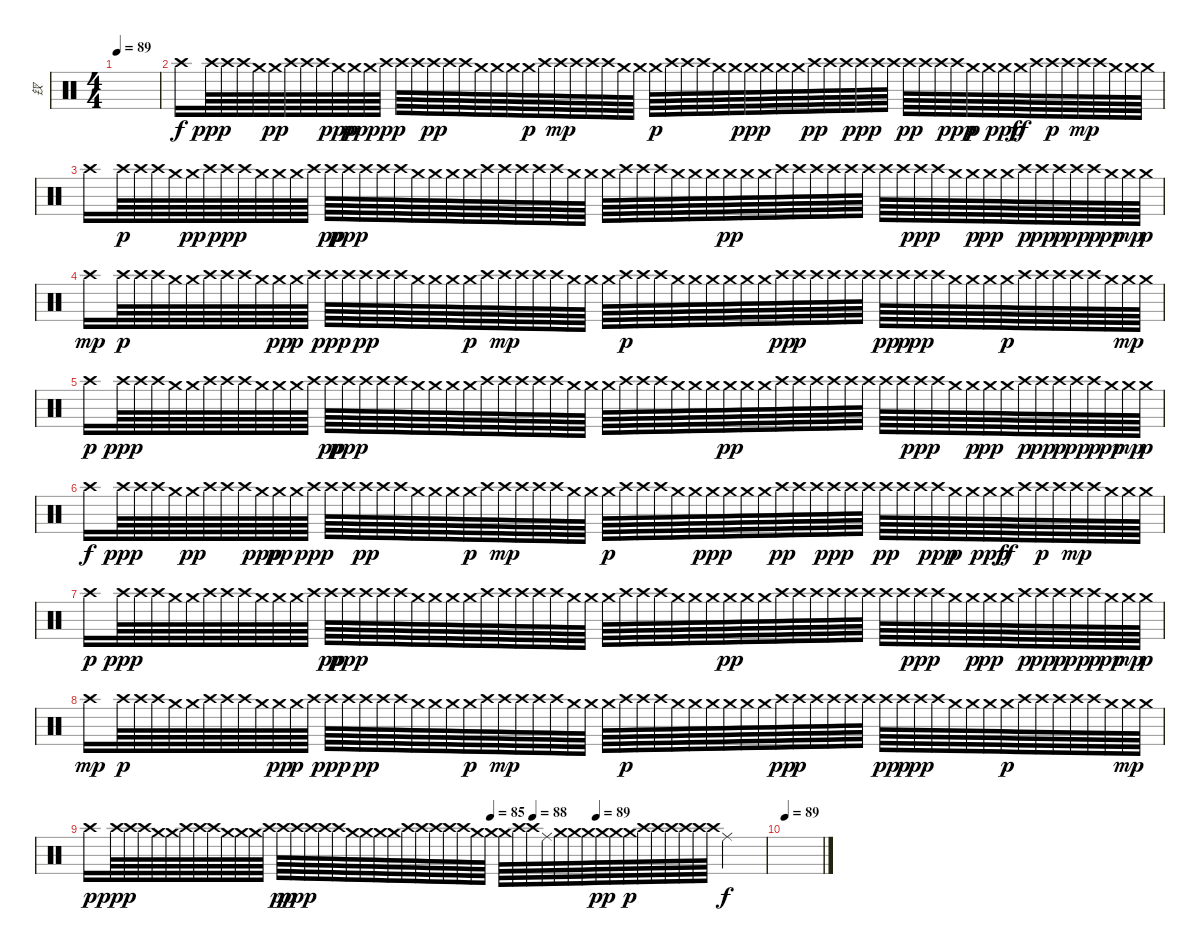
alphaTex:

\track ("钗" "钗") {instrument percussion}
\staff {score}
\articulation defaults
\ts (4 4)
\tempo 89
\tempo 83
\tempo 89
\clef neutral
\ks c
|
"Crash high (hit)".16{volume 16 balance 5} "Crash high (hit)".64{dy ppp} "Crash high (hit)".64 "Crash high (hit)".64 "Crash medium (hit)".64 "Crash medium (hit)".64{dy pp balance 9} "Crash high (hit)".64 "Crash high (hit)".64 "Crash high (hit)".64 "Crash medium (hit)".64{dy ppp} "Crash medium (hit)".64{dy pp} "Crash medium (hit)".64 "Crash high (hit)".64{dy ppp balance 0} "Crash high (hit)".64 "Crash high (hit)".64 "Crash high (hit)".64{dy pp} "Crash high (hit)".64 "Crash high (hit)".64{balance 7} "Crash medium (hit)".64 "Crash medium (hit)".64 "Crash medium (hit)".64 "Crash medium (hit)".64{dy p} "Crash high (hit)".64 "Crash high (hit)".64{dy mp} "Crash high (hit)".64 "Crash high (hit)".64 "Crash high (hit)".64{balance 13} "Crash medium (hit)".64 "Crash medium (hit)".64 "Crash medium (hit)".64{dy p} "Crash high (hit)".64 "Crash high (hit)".64 "Crash high (hit)".64 "Crash medium (hit)".64 "Crash medium (hit)".64 "Crash medium (hit)".64{dy ppp} "Crash medium (hit)".64 "Crash medium (hit)".64 "Crash medium (hit)".64 "Crash high (hit)".64{dy pp balance 8} "Crash high (hit)".64 "Crash high (hit)".64 "Crash high (hit)".64{dy ppp} "Crash high (hit)".64 "Crash high (hit)".64 "Crash high (hit)".64{dy pp} "Crash high (hit)".64 "Crash high (hit)".64 "Crash high (hit)".64{dy ppp} "Crash medium (hit)".64{dy p} "Crash medium (hit)".64 "Crash medium (hit)".64{dy ppp} "Crash medium (hit)".64{dy ff} "Crash high (hit)".64 "Crash high (hit)".64{dy p} "Crash high (hit)".64 "Crash high (hit)".64{dy mp} "Crash high (hit)".64 "Crash medium (hit)".64 "Crash medium (hit)".64 "Crash medium (hit)".64 |
"Crash high (hit)".16{balance 5} "Crash high (hit)".64{dy p} "Crash high (hit)".64 "Crash high (hit)".64 "Crash medium (hit)".64 "Crash medium (hit)".64{dy pp balance 9} "Crash high (hit)".64 "Crash high (hit)".64{dy ppp} "Crash high (hit)".64 "Crash medium (hit)".64 "Crash medium (hit)".64 "Crash medium (hit)".64 "Crash high (hit)".64{balance 0} "Crash high (hit)".64{dy pp} "Crash high (hit)".64{dy ppp} "Crash high (hit)".64 "Crash high (hit)".64 "Crash high (hit)".64{balance 7} "Crash medium (hit)".64 "Crash medium (hit)".64 "Crash medium (hit)".64 "Crash medium (hit)".64 "Crash high (hit)".64 "Crash high (hit)".64 "Crash high (hit)".64 "Crash high (hit)".64 "Crash high (hit)".64{balance 13} "Crash medium (hit)".64 "Crash medium (hit)".64 "Crash medium (hit)".64 "Crash high (hit)".64 "Crash high (hit)".64 "Crash high (hit)".64 "Crash medium (hit)".64 "Crash medium (hit)".64 "Crash medium (hit)".64 "Crash medium (hit)".64{dy pp} "Crash medium (hit)".64 "Crash medium (hit)".64 "Crash high (hit)".64{balance 8} "Crash high (hit)".64 "Crash high (hit)".64 "Crash high (hit)".64 "Crash high (hit)".64 "Crash high (hit)".64 "Crash high (hit)".64 "Crash high (hit)".64 "Crash high (hit)".64{dy ppp} "Crash high (hit)".64 "Crash medium (hit)".64 "Crash medium (hit)".64{dy p} "Crash medium (hit)".64{dy pp} "Crash medium (hit)".64 "Crash high (hit)".64{dy p} "Crash high (hit)".64{dy pp} "Crash high (hit)".64{dy p} "Crash high (hit)".64{dy pp} "Crash high (hit)".64{dy p} "Crash medium (hit)".64{dy pp} "Crash medium (hit)".64{dy mp} "Crash medium (hit)".64{dy p} |
"Crash high (hit)".16{dy mp balance 5} "Crash high (hit)".64{dy p} "Crash high (hit)".64 "Crash high (hit)".64 "Crash medium (hit)".64 "Crash medium (hit)".64{balance 9} "Crash high (hit)".64 "Crash high (hit)".64 "Crash high (hit)".64 "Crash medium (hit)".64 "Crash medium (hit)".64{dy pp} "Crash medium (hit)".64{dy p} "Crash high (hit)".64{balance 0} "Crash high (hit)".64{dy ppp} "Crash high (hit)".64 "Crash high (hit)".64{dy pp} "Crash high (hit)".64 "Crash high (hit)".64{balance 7} "Crash medium (hit)".64 "Crash medium (hit)".64 "Crash medium (hit)".64 "Crash medium (hit)".64{dy p} "Crash high (hit)".64 "Crash high (hit)".64{dy mp} "Crash high (hit)".64 "Crash high (hit)".64 "Crash high (hit)".64{balance 13} "Crash medium (hit)".64 "Crash medium (hit)".64 "Crash medium (hit)".64 "Crash high (hit)".64{dy p} "Crash high (hit)".64 "Crash high (hit)".64 "Crash medium (hit)".64 "Crash medium (hit)".64 "Crash medium (hit)".64 "Crash medium (hit)".64 "Crash medium (hit)".64 "Crash medium (hit)".64 "Crash high (hit)".64{dy pp balance 8} "Crash high (hit)".64{dy p} "Crash high (hit)".64 "Crash high (hit)".64 "Crash high (hit)".64 "Crash high (hit)".64 "Crash high (hit)".64{dy pp} "Crash high (hit)".64{dy p} "Crash high (hit)".64{dy pp} "Crash high (hit)".64 "Crash medium (hit)".64 "Crash medium (hit)".64 "Crash medium (hit)".64 "Crash medium (hit)".64{dy p} "Crash high (hit)".64 "Crash high (hit)".64 "Crash high (hit)".64 "Crash high (hit)".64 "Crash high (hit)".64 "Crash medium (hit)".64 "Crash medium (hit)".64{dy mp} "Crash medium (hit)".64 |
"Crash high (hit)".16{dy p balance 5} "Crash high (hit)".64{dy ppp} "Crash high (hit)".64 "Crash high (hit)".64 "Crash medium (hit)".64 "Crash medium (hit)".64{balance 9} "Crash high (hit)".64 "Crash high (hit)".64 "Crash high (hit)".64 "Crash medium (hit)".64 "Crash medium (hit)".64 "Crash medium (hit)".64 "Crash high (hit)".64{balance 0} "Crash high (hit)".64{dy pp} "Crash high (hit)".64{dy ppp} "Crash high (hit)".64 "Crash high (hit)".64 "Crash high (hit)".64{balance 7} "Crash medium (hit)".64 "Crash medium (hit)".64 "Crash medium (hit)".64 "Crash medium (hit)".64 "Crash high (hit)".64 "Crash high (hit)".64 "Crash high (hit)".64 "Crash high (hit)".64 "Crash high (hit)".64{balance 13} "Crash medium (hit)".64 "Crash medium (hit)".64 "Crash medium (hit)".64 "Crash high (hit)".64 "Crash high (hit)".64 "Crash high (hit)".64 "Crash medium (hit)".64 "Crash medium (hit)".64 "Crash medium (hit)".64 "Crash medium (hit)".64{dy pp} "Crash medium (hit)".64 "Crash medium (hit)".64 "Crash high (hit)".64{balance 8} "Crash high (hit)".64 "Crash high (hit)".64 "Crash high (hit)".64 "Crash high (hit)".64 "Crash high (hit)".64 "Crash high (hit)".64 "Crash high (hit)".64 "Crash high (hit)".64{dy ppp} "Crash high (hit)".64 "Crash medium (hit)".64 "Crash medium (hit)".64{dy p} "Crash medium (hit)".64{dy pp} "Crash medium (hit)".64 "Crash high (hit)".64{dy p} "Crash high (hit)".64{dy pp} "Crash high (hit)".64{dy p} "Crash high (hit)".64{dy pp} "Crash high (hit)".64{dy p} "Crash medium (hit)".64{dy pp} "Crash medium (hit)".64{dy mp} "Crash medium (hit)".64{dy p} |
"Crash high (hit)".16{dy f balance 5} "Crash high (hit)".64{dy ppp} "Crash high (hit)".64 "Crash high (hit)".64 "Crash medium (hit)".64 "Crash medium (hit)".64{dy pp balance 9} "Crash high (hit)".64 "Crash high (hit)".64 "Crash high (hit)".64 "Crash medium (hit)".64{dy ppp} "Crash medium (hit)".64{dy pp} "Crash medium (hit)".64 "Crash high (hit)".64{dy ppp balance 0} "Crash high (hit)".64 "Crash high (hit)".64 "Crash high (hit)".64{dy pp} "Crash high (hit)".64 "Crash high (hit)".64{balance 7} "Crash medium (hit)".64 "Crash medium (hit)".64 "Crash medium (hit)".64 "Crash medium (hit)".64{dy p} "Crash high (hit)".64 "Crash high (hit)".64{dy mp} "Crash high (hit)".64 "Crash high (hit)".64 "Crash high (hit)".64{balance 13} "Crash medium (hit)".64 "Crash medium (hit)".64 "Crash medium (hit)".64{dy p} "Crash high (hit)".64 "Crash high (hit)".64 "Crash high (hit)".64 "Crash medium (hit)".64 "Crash medium (hit)".64 "Crash medium (hit)".64{dy ppp} "Crash medium (hit)".64 "Crash medium (hit)".64 "Crash medium (hit)".64 "Crash high (hit)".64{dy pp balance 8} "Crash high (hit)".64 "Crash high (hit)".64 "Crash high (hit)".64{dy ppp} "Crash high (hit)".64 "Crash high (hit)".64 "Crash high (hit)".64{dy pp} "Crash high (hit)".64 "Crash high (hit)".64 "Crash high (hit)".64{dy ppp} "Crash medium (hit)".64{dy p} "Crash medium (hit)".64 "Crash medium (hit)".64{dy ppp} "Crash medium (hit)".64{dy ff} "Crash high (hit)".64 "Crash high (hit)".64{dy p} "Crash high (hit)".64 "Crash high (hit)".64{dy mp} "Crash high (hit)".64 "Crash medium (hit)".64 "Crash medium (hit)".64 "Crash medium (hit)".64 |
"Crash high (hit)".16{dy p balance 5} "Crash high (hit)".64{dy ppp} "Crash high (hit)".64 "Crash high (hit)".64 "Crash medium (hit)".64 "Crash medium (hit)".64{balance 9} "Crash high (hit)".64 "Crash high (hit)".64 "Crash high (hit)".64 "Crash medium (hit)".64 "Crash medium (hit)".64 "Crash medium (hit)".64 "Crash high (hit)".64{balance 0} "Crash high (hit)".64{dy pp} "Crash high (hit)".64{dy ppp} "Crash high (hit)".64 "Crash high (hit)".64 "Crash high (hit)".64{balance 7} "Crash medium (hit)".64 "Crash medium (hit)".64 "Crash medium (hit)".64 "Crash medium (hit)".64 "Crash high (hit)".64 "Crash high (hit)".64 "Crash high (hit)".64 "Crash high (hit)".64 "Crash high (hit)".64{balance 13} "Crash medium (hit)".64 "Crash medium (hit)".64 "Crash medium (hit)".64 "Crash high (hit)".64 "Crash high (hit)".64 "Crash high (hit)".64 "Crash medium (hit)".64 "Crash medium (hit)".64 "Crash medium (hit)".64 "Crash medium (hit)".64{dy pp} "Crash medium (hit)".64 "Crash medium (hit)".64 "Crash high (hit)".64{balance 8} "Crash high (hit)".64 "Crash high (hit)".64 "Crash high (hit)".64 "Crash high (hit)".64 "Crash high (hit)".64 "Crash high (hit)".64 "Crash high (hit)".64 "Crash high (hit)".64{dy ppp} "Crash high (hit)".64 "Crash medium (hit)".64 "Crash medium (hit)".64{dy p} "Crash medium (hit)".64{dy pp} "Crash medium (hit)".64 "Crash high (hit)".64{dy p} "Crash high (hit)".64{dy pp} "Crash high (hit)".64{dy p} "Crash high (hit)".64{dy pp} "Crash high (hit)".64{dy p} "Crash medium (hit)".64{dy pp} "Crash medium (hit)".64{dy mp} "Crash medium (hit)".64{dy p} |
"Crash high (hit)".16{dy mp balance 5} "Crash high (hit)".64{dy p} "Crash high (hit)".64 "Crash high (hit)".64 "Crash medium (hit)".64 "Crash medium (hit)".64{balance 9} "Crash high (hit)".64 "Crash high (hit)".64 "Crash high (hit)".64 "Crash medium (hit)".64 "Crash medium (hit)".64{dy pp} "Crash medium (hit)".64{dy p} "Crash high (hit)".64{balance 0} "Crash high (hit)".64{dy ppp} "Crash high (hit)".64 "Crash high (hit)".64{dy pp} "Crash high (hit)".64 "Crash high (hit)".64{balance 7} "Crash medium (hit)".64 "Crash medium (hit)".64 "Crash medium (hit)".64 "Crash medium (hit)".64{dy p} "Crash high (hit)".64 "Crash high (hit)".64{dy mp} "Crash high (hit)".64 "Crash high (hit)".64 "Crash high (hit)".64{balance 13} "Crash medium (hit)".64 "Crash medium (hit)".64 "Crash medium (hit)".64 "Crash high (hit)".64{dy p} "Crash high (hit)".64 "Crash high (hit)".64 "Crash medium (hit)".64 "Crash medium (hit)".64 "Crash medium (hit)".64 "Crash medium (hit)".64 "Crash medium (hit)".64 "Crash medium (hit)".64 "Crash high (hit)".64{dy pp balance 8} "Crash high (hit)".64{dy p} "Crash high (hit)".64 "Crash high (hit)".64 "Crash high (hit)".64 "Crash high (hit)".64 "Crash high (hit)".64{dy pp} "Crash high (hit)".64{dy p} "Crash high (hit)".64{dy pp} "Crash high (hit)".64 "Crash medium (hit)".64 "Crash medium (hit)".64 "Crash medium (hit)".64 "Crash medium (hit)".64{dy p} "Crash high (hit)".64 "Crash high (hit)".64 "Crash high (hit)".64 "Crash high (hit)".64 "Crash high (hit)".64 "Crash medium (hit)".64 "Crash medium (hit)".64{dy mp} "Crash medium (hit)".64 |
\tempo (85 0.59375)
\tempo (88 0.65625)
\tempo (89 0.75)
"Crash high (hit)".16{dy p balance 5} "Crash high (hit)".64{dy ppp} "Crash high (hit)".64 "Crash high (hit)".64 "Crash medium (hit)".64 "Crash medium (hit)".64{balance 9} "Crash high (hit)".64 "Crash high (hit)".64 "Crash high (hit)".64 "Crash medium (hit)".64 "Crash medium (hit)".64 "Crash medium (hit)".64 "Crash high (hit)".64{balance 0} "Crash high (hit)".64{dy pp} "Crash high (hit)".64{dy ppp} "Crash high (hit)".64 "Crash high (hit)".64 "Crash high (hit)".64{balance 7} "Crash medium (hit)".64 "Crash medium (hit)".64 "Crash medium (hit)".64 "Crash medium (hit)".64 "Crash high (hit)".64 "Crash high (hit)".64 "Crash high (hit)".64 "Crash high (hit)".64 "Crash high (hit)".64{balance 13} "Crash medium (hit)".64 "Crash medium (hit)".64 "Crash medium (hit)".64 "Crash high (hit)".64 "Crash high (hit)".64 "Ride (middle)".64 "Crash medium (hit)".64 "Crash medium (hit)".64 "Crash medium (hit)".64 "Crash medium (hit)".64{dy pp} "Crash medium (hit)".64 "Crash medium (hit)".64{dy p} "Crash high (hit)".64{balance 8} "Crash high (hit)".64 "Crash high (hit)".64 "Crash high (hit)".64 "Crash high (hit)".64 "Crash high (hit)".64 "Ride (middle)".4{dy f} |
\tempo 89
